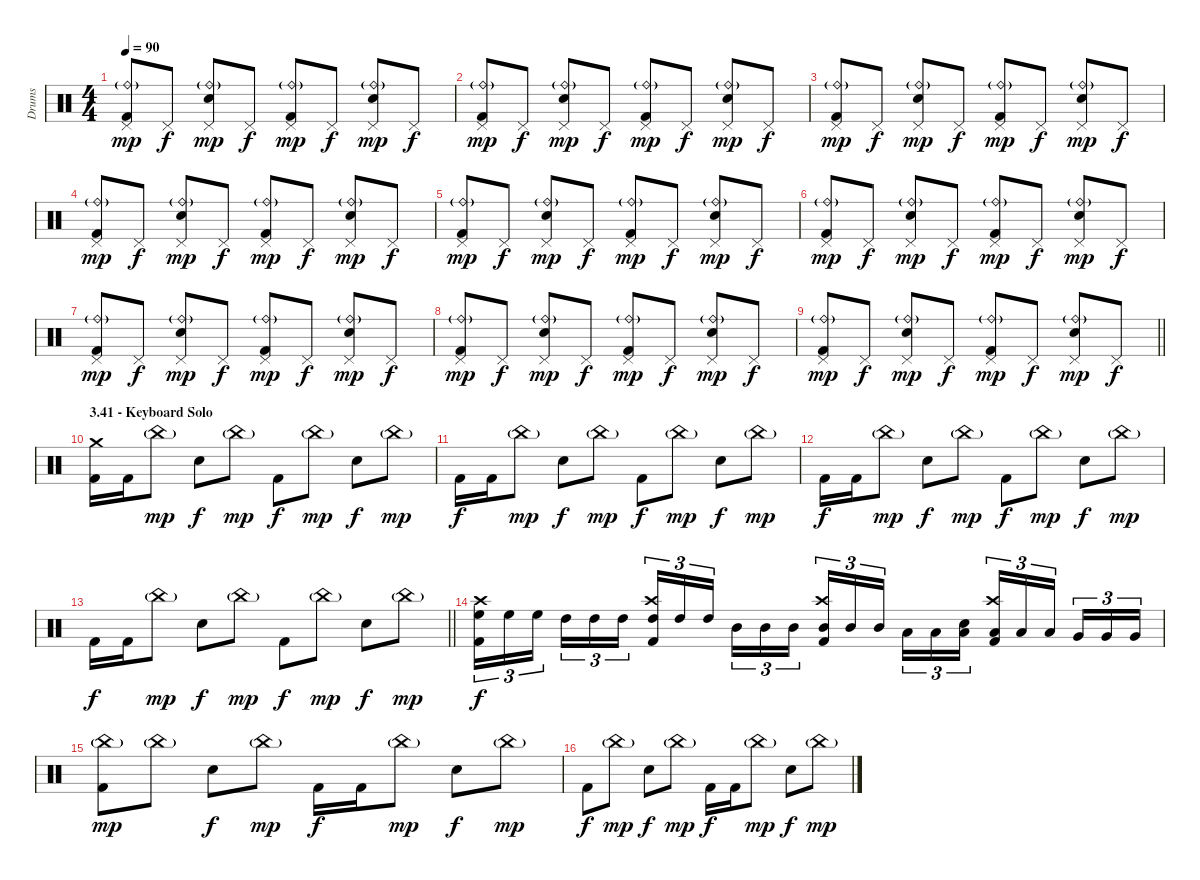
\track ("Drums" "Drums") {instrument percussion}
\staff {score}
\articulation defaults
\ts (4 4)
\tempo 90
\clef neutral
\ks c
("Ride (bell)"{g} "Pedal Hi-Hat (hit)" "Kick (hit) 2").8{dy mp} "Pedal Hi-Hat (hit)".8{dy f} ("Ride (bell)"{g} "Pedal Hi-Hat (hit)" "Electric Snare (hit)").8{dy mp} "Pedal Hi-Hat (hit)".8{dy f} ("Ride (bell)"{g} "Pedal Hi-Hat (hit)" "Kick (hit) 2").8{dy mp} "Pedal Hi-Hat (hit)".8{dy f} ("Ride (bell)"{g} "Pedal Hi-Hat (hit)" "Electric Snare (hit)").8{dy mp} "Pedal Hi-Hat (hit)".8{dy f} |
("Ride (bell)"{g} "Pedal Hi-Hat (hit)" "Kick (hit) 2").8{dy mp} "Pedal Hi-Hat (hit)".8{dy f} ("Ride (bell)"{g} "Pedal Hi-Hat (hit)" "Electric Snare (hit)").8{dy mp} "Pedal Hi-Hat (hit)".8{dy f} ("Ride (bell)"{g} "Pedal Hi-Hat (hit)" "Kick (hit) 2").8{dy mp} "Pedal Hi-Hat (hit)".8{dy f} ("Ride (bell)"{g} "Pedal Hi-Hat (hit)" "Electric Snare (hit)").8{dy mp} "Pedal Hi-Hat (hit)".8{dy f} |
("Ride (bell)"{g} "Pedal Hi-Hat (hit)" "Kick (hit) 2").8{dy mp} "Pedal Hi-Hat (hit)".8{dy f} ("Ride (bell)"{g} "Pedal Hi-Hat (hit)" "Electric Snare (hit)").8{dy mp} "Pedal Hi-Hat (hit)".8{dy f} ("Ride (bell)"{g} "Pedal Hi-Hat (hit)" "Kick (hit) 2").8{dy mp} "Pedal Hi-Hat (hit)".8{dy f} ("Ride (bell)"{g} "Pedal Hi-Hat (hit)" "Electric Snare (hit)").8{dy mp} "Pedal Hi-Hat (hit)".8{dy f} |
("Ride (bell)"{g} "Pedal Hi-Hat (hit)" "Kick (hit) 2").8{dy mp} "Pedal Hi-Hat (hit)".8{dy f} ("Ride (bell)"{g} "Pedal Hi-Hat (hit)" "Electric Snare (hit)").8{dy mp} "Pedal Hi-Hat (hit)".8{dy f} ("Ride (bell)"{g} "Pedal Hi-Hat (hit)" "Kick (hit) 2").8{dy mp} "Pedal Hi-Hat (hit)".8{dy f} ("Ride (bell)"{g} "Pedal Hi-Hat (hit)" "Electric Snare (hit)").8{dy mp} "Pedal Hi-Hat (hit)".8{dy f} |
("Ride (bell)"{g} "Pedal Hi-Hat (hit)" "Kick (hit) 2").8{dy mp} "Pedal Hi-Hat (hit)".8{dy f} ("Ride (bell)"{g} "Pedal Hi-Hat (hit)" "Electric Snare (hit)").8{dy mp} "Pedal Hi-Hat (hit)".8{dy f} ("Ride (bell)"{g} "Pedal Hi-Hat (hit)" "Kick (hit) 2").8{dy mp} "Pedal Hi-Hat (hit)".8{dy f} ("Ride (bell)"{g} "Pedal Hi-Hat (hit)" "Electric Snare (hit)").8{dy mp} "Pedal Hi-Hat (hit)".8{dy f} |
("Ride (bell)"{g} "Pedal Hi-Hat (hit)" "Kick (hit) 2").8{dy mp} "Pedal Hi-Hat (hit)".8{dy f} ("Ride (bell)"{g} "Pedal Hi-Hat (hit)" "Electric Snare (hit)").8{dy mp} "Pedal Hi-Hat (hit)".8{dy f} ("Ride (bell)"{g} "Pedal Hi-Hat (hit)" "Kick (hit) 2").8{dy mp} "Pedal Hi-Hat (hit)".8{dy f} ("Ride (bell)"{g} "Pedal Hi-Hat (hit)" "Electric Snare (hit)").8{dy mp} "Pedal Hi-Hat (hit)".8{dy f} |
("Ride (bell)"{g} "Pedal Hi-Hat (hit)" "Kick (hit) 2").8{dy mp} "Pedal Hi-Hat (hit)".8{dy f} ("Ride (bell)"{g} "Pedal Hi-Hat (hit)" "Electric Snare (hit)").8{dy mp} "Pedal Hi-Hat (hit)".8{dy f} ("Ride (bell)"{g} "Pedal Hi-Hat (hit)" "Kick (hit) 2").8{dy mp} "Pedal Hi-Hat (hit)".8{dy f} ("Ride (bell)"{g} "Pedal Hi-Hat (hit)" "Electric Snare (hit)").8{dy mp} "Pedal Hi-Hat (hit)".8{dy f} |
("Ride (bell)"{g} "Pedal Hi-Hat (hit)" "Kick (hit) 2").8{dy mp} "Pedal Hi-Hat (hit)".8{dy f} ("Ride (bell)"{g} "Pedal Hi-Hat (hit)" "Electric Snare (hit)").8{dy mp} "Pedal Hi-Hat (hit)".8{dy f} ("Ride (bell)"{g} "Pedal Hi-Hat (hit)" "Kick (hit) 2").8{dy mp} "Pedal Hi-Hat (hit)".8{dy f} ("Ride (bell)"{g} "Pedal Hi-Hat (hit)" "Electric Snare (hit)").8{dy mp} "Pedal Hi-Hat (hit)".8{dy f} |
\barLineRight lightlight
("Ride (bell)"{g} "Pedal Hi-Hat (hit)" "Kick (hit) 2").8{dy mp} "Pedal Hi-Hat (hit)".8{dy f} ("Ride (bell)"{g} "Pedal Hi-Hat (hit)" "Electric Snare (hit)").8{dy mp} "Pedal Hi-Hat (hit)".8{dy f} ("Ride (bell)"{g} "Pedal Hi-Hat (hit)" "Kick (hit) 2").8{dy mp} "Pedal Hi-Hat (hit)".8{dy f} ("Ride (bell)"{g} "Pedal Hi-Hat (hit)" "Electric Snare (hit)").8{dy mp} "Pedal Hi-Hat (hit)".8{dy f} |
\section ("" "3.41 - Keyboard Solo")
("Crash medium (hit)" "Kick (hit) 2").16 "Kick (hit) 2".16 "China (hit)"{g}.8{dy mp} "Electric Snare (hit)".8{dy f} "China (hit)"{g}.8{dy mp} "Kick (hit) 2".8{dy f} "China (hit)"{g}.8{dy mp} "Electric Snare (hit)".8{dy f} "China (hit)"{g}.8{dy mp} |
"Kick (hit) 2".16{dy f} "Kick (hit) 2".16 "China (hit)"{g}.8{dy mp} "Electric Snare (hit)".8{dy f} "China (hit)"{g}.8{dy mp} "Kick (hit) 2".8{dy f} "China (hit)"{g}.8{dy mp} "Electric Snare (hit)".8{dy f} "China (hit)"{g}.8{dy mp} |
"Kick (hit) 2".16{dy f} "Kick (hit) 2".16 "China (hit)"{g}.8{dy mp} "Electric Snare (hit)".8{dy f} "China (hit)"{g}.8{dy mp} "Kick (hit) 2".8{dy f} "China (hit)"{g}.8{dy mp} "Electric Snare (hit)".8{dy f} "China (hit)"{g}.8{dy mp} |
\barLineRight lightlight "Kick (hit) 2".16{dy f} "Kick (hit) 2".16 "China (hit)"{g}.8{dy mp} "Electric Snare (hit)".8{dy f} "China (hit)"{g}.8{dy mp} "Kick (hit) 2".8{dy f} "China (hit)"{g}.8{dy mp} "Electric Snare (hit)".8{dy f} "China (hit)"{g}.8{dy mp}
|
("Crash high (hit)" "High Floor Tom (hit)" "Kick (hit) 2").16{tu (3 2) dy f} "High Floor Tom (hit)".16{tu (3 2)} "High Floor Tom (hit)".16{tu (3 2) beam splitsecondary} "High Tom (hit)".16{tu (3 2)} "High Tom (hit)".16{tu (3 2)} "High Tom (hit)".16{tu (3 2)} ("Crash high (hit)" "High Tom (hit)" "Kick (hit) 2").16{tu (3 2)} "High Tom (hit)".16{tu (3 2)} "High Tom (hit)".16{tu (3 2) beam splitsecondary} "Mid Tom (hit)".16{tu (3 2)} "Mid Tom (hit)".16{tu (3 2)} "Mid Tom (hit)".16{tu (3 2)} ("Crash high (hit)" "Mid Tom (hit)" "Kick (hit) 2").16{tu (3 2)} "Mid Tom (hit)".16{tu (3 2)} "Mid Tom (hit)".16{tu (3 2) beam splitsecondary} "Low Tom (hit)".16{tu (3 2)} "Low Tom (hit)".16{tu (3 2)} ("Electric Snare (hit)" "Low Tom (hit)").16{tu (3 2)} ("Crash high (hit)" "Low Tom (hit)" "Kick (hit) 2").16{tu (3 2)} "Low Tom (hit)".16{tu (3 2)} "Low Tom (hit)".16{tu (3 2) beam splitsecondary} "Very Low Tom (hit)".16{tu (3 2)} "Very Low Tom (hit)".16{tu (3 2)} "Very Low Tom (hit)".16{tu (3 2)} |
("China (hit)"{g} "Kick (hit) 2").8{dy mp} "China (hit)"{g}.8 "Electric Snare (hit)".8{dy f} "China (hit)"{g}.8{dy mp} "Kick (hit) 2".16{dy f} "Kick (hit) 2".16 "China (hit)"{g}.8{dy mp} "Electric Snare (hit)".8{dy f} "China (hit)"{g}.8{dy mp} |
"Kick (hit) 2".8{dy f} "China (hit)"{g}.8{dy mp} "Electric Snare (hit)".8{dy f} "China (hit)"{g}.8{dy mp} "Kick (hit) 2".16{dy f} "Kick (hit) 2".16 "China (hit)"{g}.8{dy mp} "Electric Snare (hit)".8{dy f} "China (hit)"{g}.8{dy mp}
